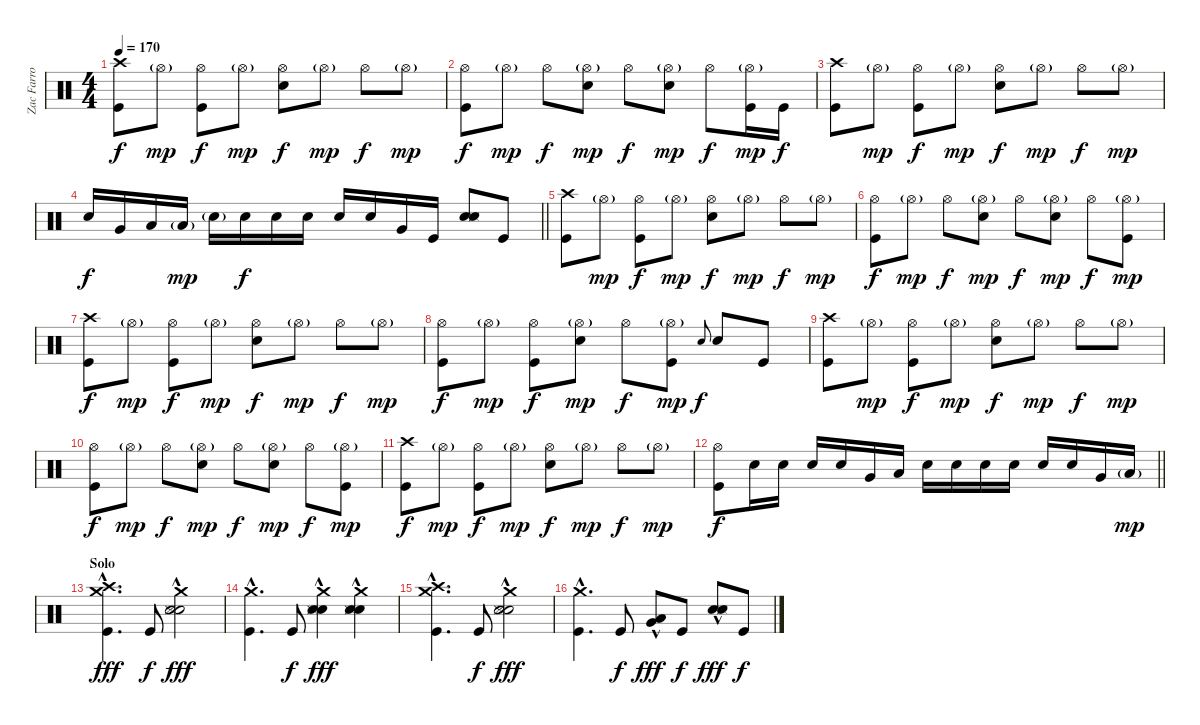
\track ("Zac Farro (Drums)" "Zac Farro ") {instrument percussion}
\staff {score}
\articulation defaults
\ts (4 4)
\tempo 170
\clef neutral
\ks c
("Crash high (hit)" "Kick (hit)").8{dy f} "Hi-Hat (open)"{g}.8{dy mp} ("Hi-Hat (open)" "Kick (hit)").8{dy f} "Hi-Hat (open)"{g}.8{dy mp} ("Hi-Hat (open)" "Electric Snare (hit)").8{dy f} "Hi-Hat (open)"{g}.8{dy mp} "Hi-Hat (open)".8{dy f} "Hi-Hat (open)"{g}.8{dy mp} |
("Hi-Hat (open)" "Kick (hit)").8{dy f} "Hi-Hat (open)"{g}.8{dy mp} "Hi-Hat (open)".8{dy f} ("Hi-Hat (open)"{g} "Electric Snare (hit)").8{dy mp} "Hi-Hat (open)".8{dy f} ("Hi-Hat (open)"{g} "Electric Snare (hit)").8{dy mp} "Hi-Hat (open)".8{dy f} ("Hi-Hat (open)"{g} "Kick (hit)").16{dy mp} "Kick (hit)".16{dy f} |
("Crash high (hit)" "Kick (hit)").8 "Hi-Hat (open)"{g}.8{dy mp} ("Hi-Hat (open)" "Kick (hit)").8{dy f} "Hi-Hat (open)"{g}.8{dy mp} ("Hi-Hat (open)" "Electric Snare (hit)").8{dy f} "Hi-Hat (open)"{g}.8{dy mp} "Hi-Hat (open)".8{dy f} "Hi-Hat (open)"{g}.8{dy mp} |
\barLineRight lightlight "Electric Snare (hit)".16{dy f} "Very Low Tom (hit)".16 "Low Floor Tom (hit)".16 "Low Floor Tom (hit)"{g}.16{dy mp} "Electric Snare (hit)"{g}.16 "Electric Snare (hit)".16{dy f} "Electric Snare (hit)".16 "Electric Snare (hit)".16 "Electric Snare (hit)".16 "Electric Snare (hit)".16 "Very Low Tom (hit)".16 "Kick (hit)".16
("Snare (hit) 2" "Snare (side stick) 3" "Electric Snare (hit)").8 "Kick (hit)".8 |
\section ("" "")
("Crash high (hit)" "Kick (hit)").8 "Hi-Hat (open)"{g}.8{dy mp} ("Hi-Hat (open)" "Kick (hit)").8{dy f} "Hi-Hat (open)"{g}.8{dy mp} ("Hi-Hat (open)" "Electric Snare (hit)").8{dy f} "Hi-Hat (open)"{g}.8{dy mp} "Hi-Hat (open)".8{dy f} "Hi-Hat (open)"{g}.8{dy mp} |
("Hi-Hat (open)" "Kick (hit)").8{dy f} "Hi-Hat (open)"{g}.8{dy mp} "Hi-Hat (open)".8{dy f} ("Hi-Hat (open)"{g} "Electric Snare (hit)").8{dy mp} "Hi-Hat (open)".8{dy f} ("Hi-Hat (open)"{g} "Electric Snare (hit)").8{dy mp} "Hi-Hat (open)".8{dy f} ("Hi-Hat (open)"{g} "Kick (hit)").8{dy mp} |
("Crash high (hit)" "Kick (hit)").8{dy f} "Hi-Hat (open)"{g}.8{dy mp} ("Hi-Hat (open)" "Kick (hit)").8{dy f} "Hi-Hat (open)"{g}.8{dy mp} ("Hi-Hat (open)" "Electric Snare (hit)").8{dy f} "Hi-Hat (open)"{g}.8{dy mp} "Hi-Hat (open)".8{dy f} "Hi-Hat (open)"{g}.8{dy mp} |
("Hi-Hat (open)" "Kick (hit)").8{dy f} "Hi-Hat (open)"{g}.8{dy mp} ("Hi-Hat (open)" "Kick (hit)").8{dy f} ("Hi-Hat (open)"{g} "Electric Snare (hit)").8{dy mp} "Hi-Hat (open)".8{dy f} ("Hi-Hat (open)"{g} "Kick (hit)").8{dy mp} "Electric Snare (hit)".8{gr onbeat dy f} "Electric Snare (hit)".8 "Kick (hit)".8 |
("Crash high (hit)" "Kick (hit)").8 "Hi-Hat (open)"{g}.8{dy mp} ("Hi-Hat (open)" "Kick (hit)").8{dy f} "Hi-Hat (open)"{g}.8{dy mp} ("Hi-Hat (open)" "Electric Snare (hit)").8{dy f} "Hi-Hat (open)"{g}.8{dy mp} "Hi-Hat (open)".8{dy f} "Hi-Hat (open)"{g}.8{dy mp} |
("Hi-Hat (open)" "Kick (hit)").8{dy f} "Hi-Hat (open)"{g}.8{dy mp} "Hi-Hat (open)".8{dy f} ("Hi-Hat (open)"{g} "Electric Snare (hit)").8{dy mp} "Hi-Hat (open)".8{dy f} ("Hi-Hat (open)"{g} "Electric Snare (hit)").8{dy mp} "Hi-Hat (open)".8{dy f} ("Hi-Hat (open)"{g} "Kick (hit)").8{dy mp} |
("Crash high (hit)" "Kick (hit)").8{dy f} "Hi-Hat (open)"{g}.8{dy mp} ("Hi-Hat (open)" "Kick (hit)").8{dy f} "Hi-Hat (open)"{g}.8{dy mp} ("Hi-Hat (open)" "Electric Snare (hit)").8{dy f} "Hi-Hat (open)"{g}.8{dy mp} "Hi-Hat (open)".8{dy f} "Hi-Hat (open)"{g}.8{dy mp} |
\barLineRight lightlight
("Hi-Hat (open)" "Kick (hit)").8{dy f} "Electric Snare (hit)".16 "Electric Snare (hit)".16 "Electric Snare (hit)".16 "Electric Snare (hit)".16 "Very Low Tom (hit)".16 "Low Floor Tom (hit)".16 "Electric Snare (hit)".16 "Electric Snare (hit)".16 "Electric Snare (hit)".16 "Electric Snare (hit)".16 "Electric Snare (hit)".16 "Electric Snare (hit)".16 "Very Low Tom (hit)".16 "Low Floor Tom (hit)"{g}.16{dy mp} |
\section ("" "Solo")
("Crash high (hit)"{hac} "Crash medium (hit)"{hac} "Kick (hit)"{hac}).4{d dy fff} "Kick (hit)".8{dy f} ("Crash medium (hit)"{hac} "Snare (hit) 2"{hac} "Snare (side stick) 3"{hac} "Electric Snare (hit)"{hac}).2{dy fff} |
("Crash medium (hit)"{hac} "Kick (hit)"{hac}).4{d} "Kick (hit)".8{dy f} ("Crash medium (hit)"{hac} "Snare (hit) 2"{hac} "Snare (side stick) 3"{hac} "Electric Snare (hit)"{hac}).4{dy fff} ("Crash medium (hit)"{hac} "Snare (hit) 2"{hac} "Snare (side stick) 3"{hac} "Electric Snare (hit)"{hac}).4 |
("Crash high (hit)"{hac} "Crash medium (hit)"{hac} "Kick (hit)"{hac}).4{d} "Kick (hit)".8{dy f} ("Crash medium (hit)"{hac} "Snare (hit) 2"{hac} "Snare (side stick) 3"{hac} "Electric Snare (hit)"{hac}).2{dy fff} |
("Crash medium (hit)"{hac} "Kick (hit)"{hac}).4{d} "Kick (hit)".8{dy f} ("Very Low Tom (hit)"{hac} "Low Floor Tom (hit)"{hac}).8{dy fff} "Kick (hit)".8{dy f} ("Snare (hit) 2"{hac} "Snare (side stick) 3"{hac} "Electric Snare (hit)"{hac}).8{dy fff} "Kick (hit)".8{dy f}
